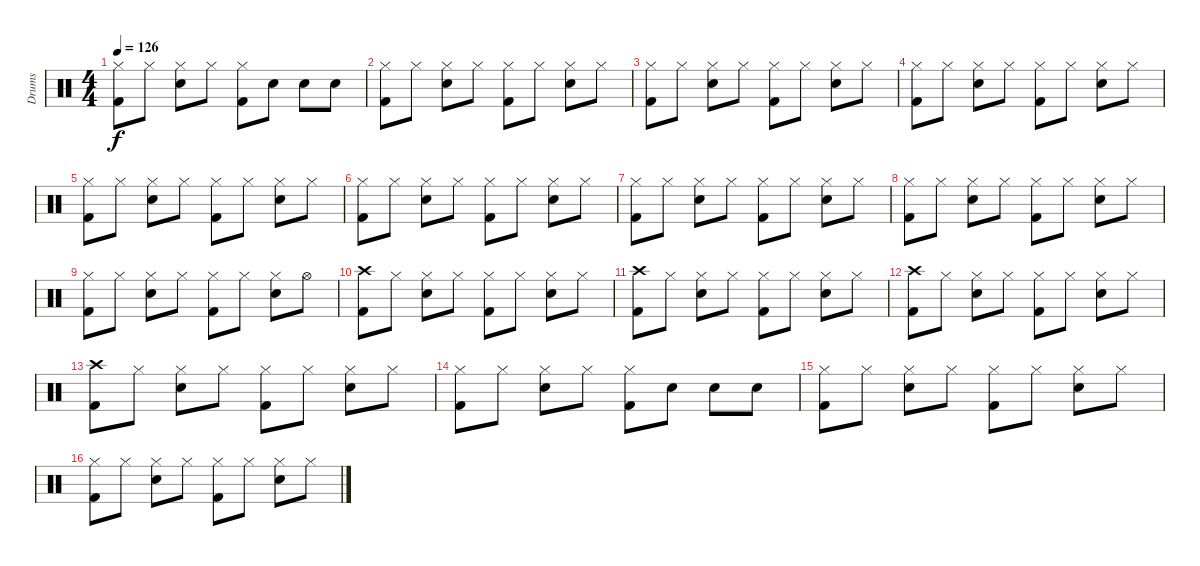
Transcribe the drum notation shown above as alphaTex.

\track ("Drums" "Drums") {instrument percussion}
\staff {score}
\articulation defaults
\ts (4 4)
\tempo 126
\clef neutral
\ks c
("Kick (hit) 2" "Hi-Hat (closed)").8{dy f} "Hi-Hat (closed)".8 ("Snare (hit) 2" "Hi-Hat (closed)").8 "Hi-Hat (closed)".8 ("Kick (hit) 2" "Hi-Hat (closed)").8 "Snare (hit) 2".8 "Snare (hit) 2".8 "Snare (hit) 2".8 |
("Kick (hit) 2" "Hi-Hat (closed)").8 "Hi-Hat (closed)".8 ("Snare (hit) 2" "Hi-Hat (closed)").8 "Hi-Hat (closed)".8 ("Kick (hit) 2" "Hi-Hat (closed)").8 "Hi-Hat (closed)".8 ("Snare (hit) 2" "Hi-Hat (closed)").8 "Hi-Hat (closed)".8 |
("Kick (hit) 2" "Hi-Hat (closed)").8 "Hi-Hat (closed)".8 ("Snare (hit) 2" "Hi-Hat (closed)").8 "Hi-Hat (closed)".8 ("Kick (hit) 2" "Hi-Hat (closed)").8 "Hi-Hat (closed)".8 ("Snare (hit) 2" "Hi-Hat (closed)").8 "Hi-Hat (closed)".8 |
("Kick (hit) 2" "Hi-Hat (closed)").8 "Hi-Hat (closed)".8 ("Snare (hit) 2" "Hi-Hat (closed)").8 "Hi-Hat (closed)".8 ("Kick (hit) 2" "Hi-Hat (closed)").8 "Hi-Hat (closed)".8 ("Snare (hit) 2" "Hi-Hat (closed)").8 "Hi-Hat (closed)".8 |
("Kick (hit) 2" "Hi-Hat (closed)").8 "Hi-Hat (closed)".8 ("Snare (hit) 2" "Hi-Hat (closed)").8 "Hi-Hat (closed)".8 ("Kick (hit) 2" "Hi-Hat (closed)").8 "Hi-Hat (closed)".8 ("Snare (hit) 2" "Hi-Hat (closed)").8 "Hi-Hat (closed)".8 |
("Kick (hit) 2" "Hi-Hat (closed)").8 "Hi-Hat (closed)".8 ("Snare (hit) 2" "Hi-Hat (closed)").8 "Hi-Hat (closed)".8 ("Kick (hit) 2" "Hi-Hat (closed)").8 "Hi-Hat (closed)".8 ("Snare (hit) 2" "Hi-Hat (closed)").8 "Hi-Hat (closed)".8 |
("Kick (hit) 2" "Hi-Hat (closed)").8 "Hi-Hat (closed)".8 ("Snare (hit) 2" "Hi-Hat (closed)").8 "Hi-Hat (closed)".8 ("Kick (hit) 2" "Hi-Hat (closed)").8 "Hi-Hat (closed)".8 ("Snare (hit) 2" "Hi-Hat (closed)").8 "Hi-Hat (closed)".8 |
("Kick (hit) 2" "Hi-Hat (closed)").8 "Hi-Hat (closed)".8 ("Snare (hit) 2" "Hi-Hat (closed)").8 "Hi-Hat (closed)".8 ("Kick (hit) 2" "Hi-Hat (closed)").8 "Hi-Hat (closed)".8 ("Snare (hit) 2" "Hi-Hat (closed)").8 "Hi-Hat (closed)".8 |
("Kick (hit) 2" "Hi-Hat (closed)").8 "Hi-Hat (closed)".8 ("Snare (hit) 2" "Hi-Hat (closed)").8 "Hi-Hat (closed)".8 ("Kick (hit) 2" "Hi-Hat (closed)").8 "Hi-Hat (closed)".8 ("Snare (hit) 2" "Hi-Hat (closed)").8 "Hi-Hat (open)".8 |
("Kick (hit) 2" "Crash high (hit)").8 "Hi-Hat (closed)".8 ("Snare (hit) 2" "Hi-Hat (closed)").8 "Hi-Hat (closed)".8 ("Kick (hit) 2" "Hi-Hat (closed)").8 "Hi-Hat (closed)".8 ("Snare (hit) 2" "Hi-Hat (closed)").8 "Hi-Hat (closed)".8 |
("Kick (hit) 2" "Crash high (hit)").8 "Hi-Hat (closed)".8 ("Snare (hit) 2" "Hi-Hat (closed)").8 "Hi-Hat (closed)".8 ("Kick (hit) 2" "Hi-Hat (closed)").8 "Hi-Hat (closed)".8 ("Snare (hit) 2" "Hi-Hat (closed)").8 "Hi-Hat (closed)".8 |
("Kick (hit) 2" "Crash high (hit)").8 "Hi-Hat (closed)".8 ("Snare (hit) 2" "Hi-Hat (closed)").8 "Hi-Hat (closed)".8 ("Kick (hit) 2" "Hi-Hat (closed)").8 "Hi-Hat (closed)".8 ("Snare (hit) 2" "Hi-Hat (closed)").8 "Hi-Hat (closed)".8 |
("Kick (hit) 2" "Crash high (hit)").8 "Hi-Hat (closed)".8 ("Snare (hit) 2" "Hi-Hat (closed)").8 "Hi-Hat (closed)".8 ("Kick (hit) 2" "Hi-Hat (closed)").8 "Hi-Hat (closed)".8 ("Snare (hit) 2" "Hi-Hat (closed)").8 "Hi-Hat (closed)".8 |
("Kick (hit) 2" "Hi-Hat (closed)").8 "Hi-Hat (closed)".8 ("Snare (hit) 2" "Hi-Hat (closed)").8 "Hi-Hat (closed)".8 ("Kick (hit) 2" "Hi-Hat (closed)").8 "Snare (hit) 2".8 "Snare (hit) 2".8 "Snare (hit) 2".8 |
("Kick (hit) 2" "Hi-Hat (closed)").8 "Hi-Hat (closed)".8 ("Snare (hit) 2" "Hi-Hat (closed)").8 "Hi-Hat (closed)".8 ("Kick (hit) 2" "Hi-Hat (closed)").8 "Hi-Hat (closed)".8 ("Snare (hit) 2" "Hi-Hat (closed)").8 "Hi-Hat (closed)".8 |
("Kick (hit) 2" "Hi-Hat (closed)").8 "Hi-Hat (closed)".8 ("Snare (hit) 2" "Hi-Hat (closed)").8 "Hi-Hat (closed)".8 ("Kick (hit) 2" "Hi-Hat (closed)").8 "Hi-Hat (closed)".8 ("Snare (hit) 2" "Hi-Hat (closed)").8 "Hi-Hat (closed)".8
